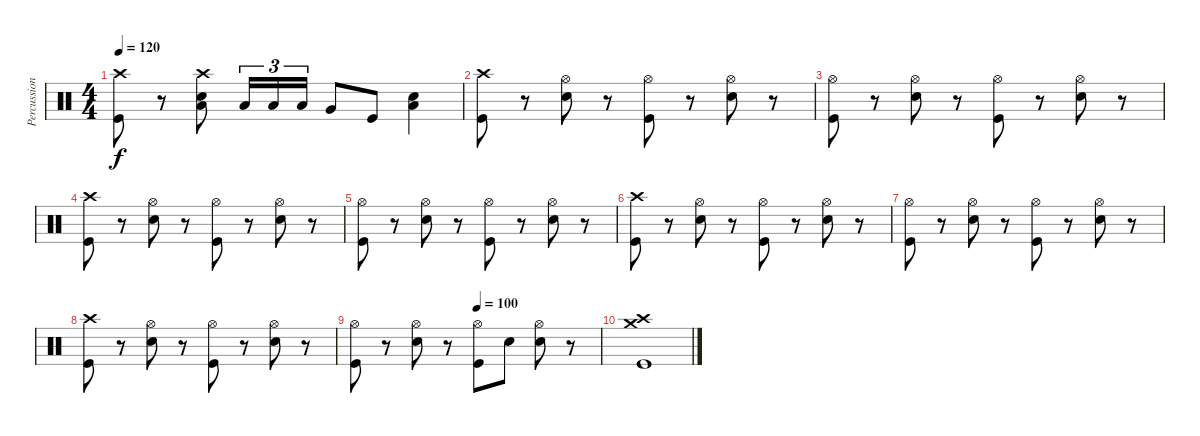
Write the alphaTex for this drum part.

\track ("Percussion" "Percussion") {instrument percussion}
\staff {score}
\articulation defaults
\ts (4 4)
\tempo 120
\clef neutral
\ks c
("Crash high (hit)" "Kick (hit)").8{dy f} r.8 ("Electric Snare (hit)" "Crash high (hit)" "Low Tom (hit)").8 "Low Tom (hit)".16{tu (3 2)} "Low Tom (hit)".16{tu (3 2)} "Low Tom (hit)".16{tu (3 2)} "Very Low Tom (hit)".8 "Kick (hit)".8 ("Electric Snare (hit)" "Low Floor Tom (hit)").4 |
("Crash high (hit)" "Kick (hit)").8 r.8 ("Electric Snare (hit)" "Hi-Hat (open)").8 r.8 ("Hi-Hat (open)" "Kick (hit)").8 r.8 ("Electric Snare (hit)" "Hi-Hat (open)").8 r.8 |
("Hi-Hat (open)" "Kick (hit)").8 r.8 ("Electric Snare (hit)" "Hi-Hat (open)").8 r.8 ("Hi-Hat (open)" "Kick (hit)").8 r.8 ("Electric Snare (hit)" "Hi-Hat (open)").8 r.8 |
("Crash high (hit)" "Kick (hit)").8 r.8 ("Electric Snare (hit)" "Hi-Hat (open)").8 r.8 ("Hi-Hat (open)" "Kick (hit)").8 r.8 ("Electric Snare (hit)" "Hi-Hat (open)").8 r.8 |
("Hi-Hat (open)" "Kick (hit)").8 r.8 ("Electric Snare (hit)" "Hi-Hat (open)").8 r.8 ("Hi-Hat (open)" "Kick (hit)").8 r.8 ("Electric Snare (hit)" "Hi-Hat (open)").8 r.8 |
("Crash high (hit)" "Kick (hit)").8 r.8 ("Electric Snare (hit)" "Hi-Hat (open)").8 r.8 ("Hi-Hat (open)" "Kick (hit)").8 r.8 ("Electric Snare (hit)" "Hi-Hat (open)").8 r.8 |
("Hi-Hat (open)" "Kick (hit)").8 r.8 ("Electric Snare (hit)" "Hi-Hat (open)").8 r.8 ("Hi-Hat (open)" "Kick (hit)").8 r.8 ("Electric Snare (hit)" "Hi-Hat (open)").8 r.8 |
("Crash high (hit)" "Kick (hit)").8 r.8 ("Electric Snare (hit)" "Hi-Hat (open)").8 r.8 ("Hi-Hat (open)" "Kick (hit)").8 r.8 ("Electric Snare (hit)" "Hi-Hat (open)").8 r.8 |
\tempo (100 0.5)
("Hi-Hat (open)" "Kick (hit)").8 r.8 ("Electric Snare (hit)" "Hi-Hat (open)").8 r.8 ("Hi-Hat (open)" "Kick (hit)").8 "Electric Snare (hit)".8 ("Electric Snare (hit)" "Hi-Hat (open)").8 r.8 |
("Crash medium (hit)" "Crash high (hit)" "Kick (hit)").1
